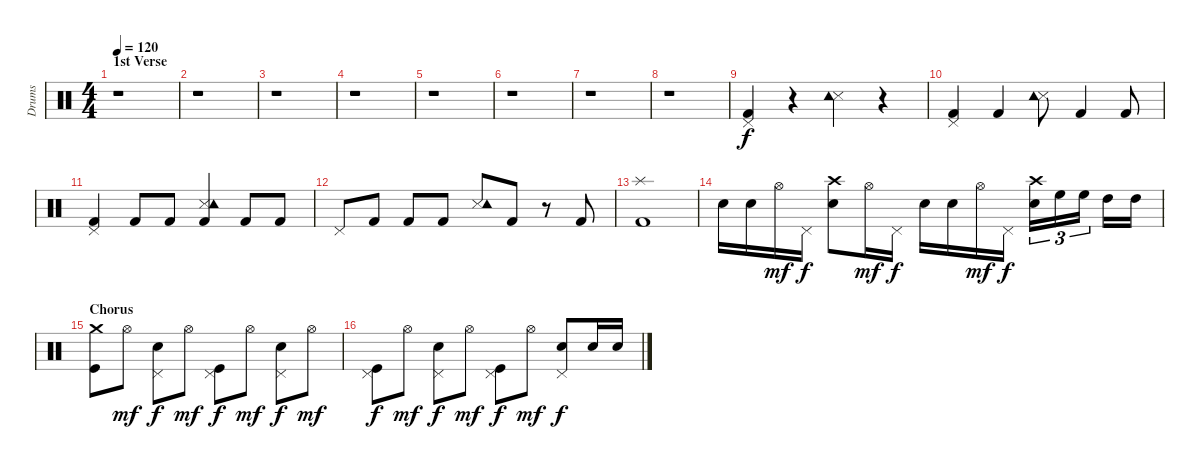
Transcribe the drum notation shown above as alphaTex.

\track ("Drums" "Drums") {instrument percussion}
\staff {score}
\articulation defaults
\ts (4 4)
\section ("" "1st Verse")
\tempo 120
\clef neutral
\ks c
r.1{dy f} |
r.1 |
r.1 |
r.1 |
r.1 |
r.1 |
r.1 |
r.1 |
("Pedal Hi-Hat (hit)" "Kick (hit) 2").4 r.4 ("Snare (side stick) 3" "Tambourine (hit)").4 r.4 |
("Pedal Hi-Hat (hit)" "Kick (hit) 2").4 "Kick (hit) 2".4 ("Snare (side stick) 3" "Tambourine (hit)").8 "Kick (hit) 2".4 "Kick (hit) 2".8 |
("Pedal Hi-Hat (hit)" "Kick (hit) 2").4 "Kick (hit) 2".8 "Kick (hit) 2".8 ("Snare (side stick) 3" "Tambourine (hit)" "Kick (hit) 2").4 "Kick (hit) 2".8 "Kick (hit) 2".8 |
"Pedal Hi-Hat (hit)".8 "Kick (hit) 2".8 "Kick (hit) 2".8 "Kick (hit) 2".8 ("Snare (side stick) 3" "Tambourine (hit)").8 "Kick (hit) 2".8 r.8 "Kick (hit) 2".8 |
("Splash (hit)" "Kick (hit) 2").1 |
"Electric Snare (hit)".16 "Electric Snare (hit)".16 "Hi-Hat (open)".16{dy mf} "Pedal Hi-Hat (hit)".16{dy f} ("Crash high (hit)" "Electric Snare (hit)").8 "Hi-Hat (open)".16{dy mf} "Pedal Hi-Hat (hit)".16{dy f} "Electric Snare (hit)".16 "Electric Snare (hit)".16 "Hi-Hat (open)".16{dy mf} "Pedal Hi-Hat (hit)".16{dy f} ("Crash high (hit)" "Electric Snare (hit)").16{tu (3 2)} "High Floor Tom (hit)".16{tu (3 2)} "High Floor Tom (hit)".16{tu (3 2)} "High Tom (hit)".16 "High Tom (hit)".16 |
\section ("" "Chorus")
("Crash medium (hit)" "Kick (hit)").8 "Hi-Hat (open)".8{dy mf} ("Pedal Hi-Hat (hit)" "Electric Snare (hit)").8{dy f} "Hi-Hat (open)".8{dy mf} ("Pedal Hi-Hat (hit)" "Kick (hit)").8{dy f} "Hi-Hat (open)".8{dy mf} ("Pedal Hi-Hat (hit)" "Electric Snare (hit)").8{dy f} "Hi-Hat (open)".8{dy mf} |
("Pedal Hi-Hat (hit)" "Kick (hit)").8{dy f} "Hi-Hat (open)".8{dy mf} ("Pedal Hi-Hat (hit)" "Electric Snare (hit)").8{dy f} "Hi-Hat (open)".8{dy mf} ("Pedal Hi-Hat (hit)" "Kick (hit)").8{dy f} "Hi-Hat (open)".8{dy mf} ("Pedal Hi-Hat (hit)" "Electric Snare (hit)").8{dy f} "Electric Snare (hit)".16 "Electric Snare (hit)".16
